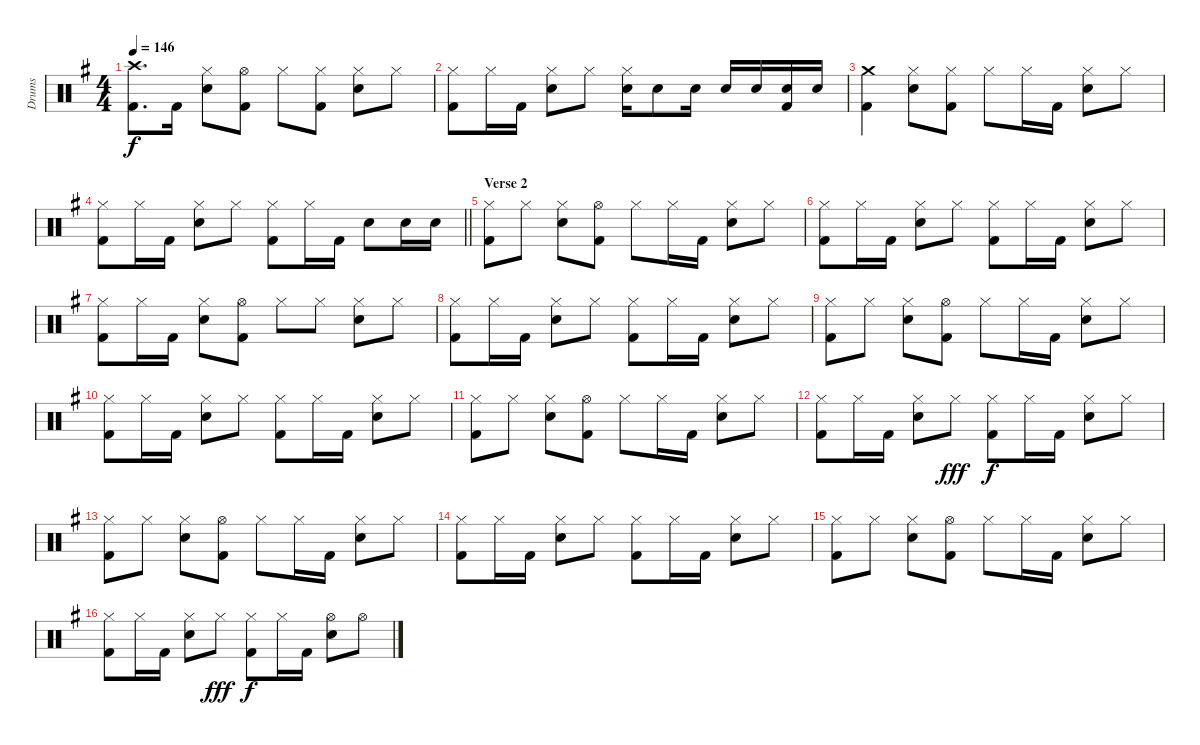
\track ("Drums" "Drums") {instrument percussion}
\staff {score}
\articulation defaults
\ts (4 4)
\tempo 146
\clef neutral
\ks g
("Kick (hit) 2" "Crash high (hit)").8{d dy f} "Kick (hit) 2".16 ("Snare (hit) 2" "Hi-Hat (closed)").8 ("Kick (hit) 2" "Hi-Hat (open)").8 "Hi-Hat (closed)".8 ("Kick (hit) 2" "Hi-Hat (closed)").8 ("Snare (hit) 2" "Hi-Hat (closed)").8 "Hi-Hat (closed)".8 |
("Kick (hit) 2" "Hi-Hat (closed)").8 "Hi-Hat (closed)".16 "Kick (hit) 2".16 ("Snare (hit) 2" "Hi-Hat (closed)").8 "Hi-Hat (closed)".8 ("Snare (hit) 2" "Hi-Hat (closed)").16 "Snare (hit) 2".8 "Snare (hit) 2".16 "Snare (hit) 2".16 "Snare (hit) 2".16 ("Kick (hit) 2" "Snare (hit) 2").16 "Snare (hit) 2".16 |
("Kick (hit) 2" "Crash medium (hit)").4 ("Snare (hit) 2" "Hi-Hat (closed)").8 ("Kick (hit) 2" "Hi-Hat (closed)").8 "Hi-Hat (closed)".8 "Hi-Hat (closed)".16 "Kick (hit) 2".16 ("Snare (hit) 2" "Hi-Hat (closed)").8 "Hi-Hat (closed)".8 |
\barLineRight lightlight
("Kick (hit) 2" "Hi-Hat (closed)").8 "Hi-Hat (closed)".16 "Kick (hit) 2".16 ("Snare (hit) 2" "Hi-Hat (closed)").8 "Hi-Hat (closed)".8 ("Kick (hit) 2" "Hi-Hat (closed)").8 "Hi-Hat (closed)".16 "Kick (hit) 2".16 "Snare (hit) 2".8 "Snare (hit) 2".16 "Snare (hit) 2".16 |
\section ("" "Verse 2")
("Kick (hit) 2" "Hi-Hat (closed)").8 "Hi-Hat (closed)".8 ("Snare (hit) 2" "Hi-Hat (closed)").8 ("Kick (hit) 2" "Hi-Hat (open)").8 "Hi-Hat (closed)".8 "Hi-Hat (closed)".16 "Kick (hit) 2".16 ("Snare (hit) 2" "Hi-Hat (closed)").8 "Hi-Hat (closed)".8 |
("Kick (hit) 2" "Hi-Hat (closed)").8 "Hi-Hat (closed)".16 "Kick (hit) 2".16 ("Snare (hit) 2" "Hi-Hat (closed)").8 "Hi-Hat (closed)".8 ("Kick (hit) 2" "Hi-Hat (closed)").8 "Hi-Hat (closed)".16 "Kick (hit) 2".16 ("Snare (hit) 2" "Hi-Hat (closed)").8 "Hi-Hat (closed)".8 |
("Kick (hit) 2" "Hi-Hat (closed)").8 "Hi-Hat (closed)".16 "Kick (hit) 2".16 ("Snare (hit) 2" "Hi-Hat (closed)").8 ("Kick (hit) 2" "Hi-Hat (open)").8 "Hi-Hat (closed)".8 "Hi-Hat (closed)".8 ("Snare (hit) 2" "Hi-Hat (closed)").8 "Hi-Hat (closed)".8 |
("Kick (hit) 2" "Hi-Hat (closed)").8 "Hi-Hat (closed)".16 "Kick (hit) 2".16 ("Snare (hit) 2" "Hi-Hat (closed)").8 "Hi-Hat (closed)".8 ("Kick (hit) 2" "Hi-Hat (closed)").8 "Hi-Hat (closed)".16 "Kick (hit) 2".16 ("Snare (hit) 2" "Hi-Hat (closed)").8 "Hi-Hat (closed)".8 |
("Kick (hit) 2" "Hi-Hat (closed)").8 "Hi-Hat (closed)".8 ("Snare (hit) 2" "Hi-Hat (closed)").8 ("Kick (hit) 2" "Hi-Hat (open)").8 "Hi-Hat (closed)".8 "Hi-Hat (closed)".16 "Kick (hit) 2".16 ("Snare (hit) 2" "Hi-Hat (closed)").8 "Hi-Hat (closed)".8 |
("Kick (hit) 2" "Hi-Hat (closed)").8 "Hi-Hat (closed)".16 "Kick (hit) 2".16 ("Snare (hit) 2" "Hi-Hat (closed)").8 "Hi-Hat (closed)".8 ("Kick (hit) 2" "Hi-Hat (closed)").8 "Hi-Hat (closed)".16 "Kick (hit) 2".16 ("Snare (hit) 2" "Hi-Hat (closed)").8 "Hi-Hat (closed)".8 |
("Kick (hit) 2" "Hi-Hat (closed)").8 "Hi-Hat (closed)".8 ("Snare (hit) 2" "Hi-Hat (closed)").8 ("Kick (hit) 2" "Hi-Hat (open)").8 "Hi-Hat (closed)".8 "Hi-Hat (closed)".16 "Kick (hit) 2".16 ("Snare (hit) 2" "Hi-Hat (closed)").8 "Hi-Hat (closed)".8 |
("Kick (hit) 2" "Hi-Hat (closed)").8 "Hi-Hat (closed)".16 "Kick (hit) 2".16 ("Snare (hit) 2" "Hi-Hat (closed)").8 "Hi-Hat (closed)".8{dy fff} ("Kick (hit) 2" "Hi-Hat (closed)").8{dy f} "Hi-Hat (closed)".16 "Kick (hit) 2".16 ("Snare (hit) 2" "Hi-Hat (closed)").8 "Hi-Hat (closed)".8 |
("Kick (hit) 2" "Hi-Hat (closed)").8 "Hi-Hat (closed)".8 ("Snare (hit) 2" "Hi-Hat (closed)").8 ("Kick (hit) 2" "Hi-Hat (open)").8 "Hi-Hat (closed)".8 "Hi-Hat (closed)".16 "Kick (hit) 2".16 ("Snare (hit) 2" "Hi-Hat (closed)").8 "Hi-Hat (closed)".8 |
("Kick (hit) 2" "Hi-Hat (closed)").8 "Hi-Hat (closed)".16 "Kick (hit) 2".16 ("Snare (hit) 2" "Hi-Hat (closed)").8 "Hi-Hat (closed)".8 ("Kick (hit) 2" "Hi-Hat (closed)").8 "Hi-Hat (closed)".16 "Kick (hit) 2".16 ("Snare (hit) 2" "Hi-Hat (closed)").8 "Hi-Hat (closed)".8 |
("Kick (hit) 2" "Hi-Hat (closed)").8 "Hi-Hat (closed)".8 ("Snare (hit) 2" "Hi-Hat (closed)").8 ("Kick (hit) 2" "Hi-Hat (open)").8 "Hi-Hat (closed)".8 "Hi-Hat (closed)".16 "Kick (hit) 2".16 ("Snare (hit) 2" "Hi-Hat (closed)").8 "Hi-Hat (closed)".8 |
("Kick (hit) 2" "Hi-Hat (closed)").8 "Hi-Hat (closed)".16 "Kick (hit) 2".16 ("Snare (hit) 2" "Hi-Hat (closed)").8 "Hi-Hat (closed)".8{dy fff} ("Kick (hit) 2" "Hi-Hat (closed)").8{dy f} "Hi-Hat (closed)".16 "Kick (hit) 2".16 ("Snare (hit) 2" "Hi-Hat (open)").8 "Hi-Hat (open)".8
